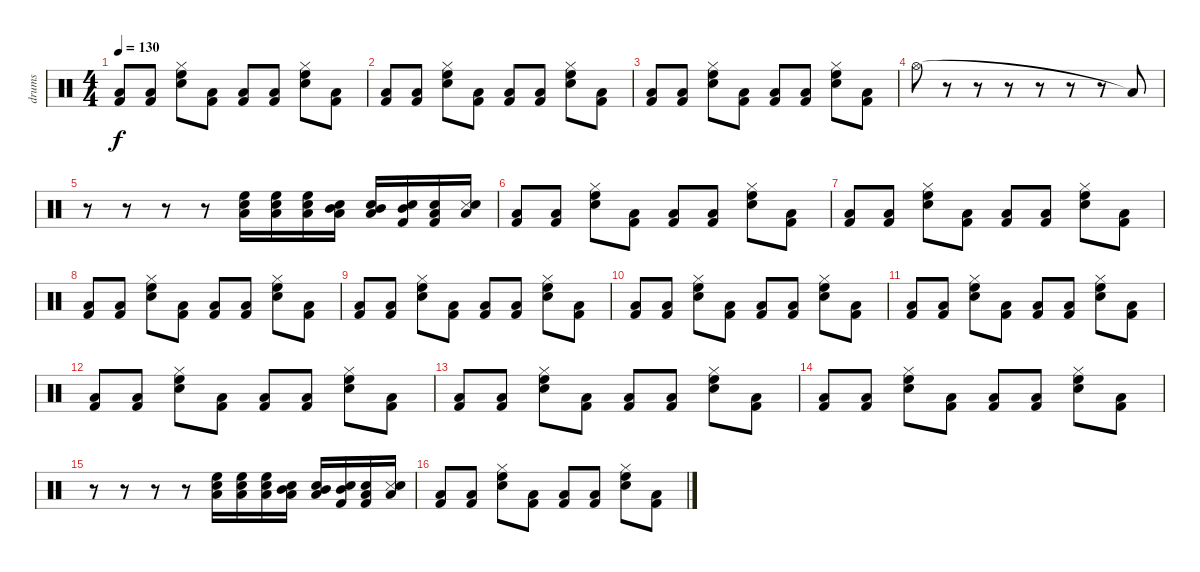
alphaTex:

\track ("drums" "drums") {instrument percussion}
\staff {score}
\articulation defaults
\ts (4 4)
\tempo 130
\clef neutral
\ks c
("Kick (hit) 2" "Low Tom (hit)").8{dy f} ("Kick (hit) 2" "Low Tom (hit)").8 ("Hi-Hat (closed)" "High Floor Tom (hit)" "Snare (hit) 2").8 ("Kick (hit) 2" "Low Tom (hit)").8 ("Kick (hit) 2" "Low Tom (hit)").8 ("Kick (hit) 2" "Low Tom (hit)").8 ("Hi-Hat (closed)" "High Floor Tom (hit)" "Snare (hit) 2").8 ("Kick (hit) 2" "Low Tom (hit)").8 |
("Kick (hit) 2" "Low Tom (hit)").8 ("Kick (hit) 2" "Low Tom (hit)").8 ("Hi-Hat (closed)" "High Floor Tom (hit)" "Snare (hit) 2").8 ("Kick (hit) 2" "Low Tom (hit)").8 ("Kick (hit) 2" "Low Tom (hit)").8 ("Kick (hit) 2" "Low Tom (hit)").8 ("Hi-Hat (closed)" "High Floor Tom (hit)" "Snare (hit) 2").8 ("Kick (hit) 2" "Low Tom (hit)").8 |
("Kick (hit) 2" "Low Tom (hit)").8 ("Kick (hit) 2" "Low Tom (hit)").8 ("Hi-Hat (closed)" "High Floor Tom (hit)" "Snare (hit) 2").8 ("Kick (hit) 2" "Low Tom (hit)").8 ("Kick (hit) 2" "Low Tom (hit)").8 ("Kick (hit) 2" "Low Tom (hit)").8 ("Hi-Hat (closed)" "High Floor Tom (hit)" "Snare (hit) 2").8 ("Kick (hit) 2" "Low Tom (hit)").8 |
"Hi-Hat (open)".8 r.8 r.8 r.8 r.8 r.8 r.8 "Low Tom (hit)"{t}.8 |
r.8 r.8 r.8 r.8 ("High Floor Tom (hit)" "Low Tom (hit)" "Snare (hit) 2").16 ("High Floor Tom (hit)" "Low Tom (hit)" "Snare (hit) 2").16 ("High Floor Tom (hit)" "Low Tom (hit)" "Snare (hit) 2").16 ("Mid Tom (hit)" "Low Tom (hit)" "Snare (hit) 2").16 ("Mid Tom (hit)" "Low Tom (hit)" "Snare (hit) 2").16 ("Mid Tom (hit)" "Kick (hit) 2" "Snare (hit) 2").16 ("Low Tom (hit)" "Kick (hit) 2" "Snare (hit) 2").16 ("Low Floor Tom (hit)" "Snare (side stick) 3" "Snare (hit) 2").16 |
("Kick (hit) 2" "Low Tom (hit)").8 ("Kick (hit) 2" "Low Tom (hit)").8 ("Hi-Hat (closed)" "High Floor Tom (hit)" "Snare (hit) 2").8 ("Kick (hit) 2" "Low Tom (hit)").8 ("Kick (hit) 2" "Low Tom (hit)").8 ("Kick (hit) 2" "Low Tom (hit)").8 ("Hi-Hat (closed)" "High Floor Tom (hit)" "Snare (hit) 2").8 ("Kick (hit) 2" "Low Tom (hit)").8 |
("Kick (hit) 2" "Low Tom (hit)").8 ("Kick (hit) 2" "Low Tom (hit)").8 ("Hi-Hat (closed)" "High Floor Tom (hit)" "Snare (hit) 2").8 ("Kick (hit) 2" "Low Tom (hit)").8 ("Kick (hit) 2" "Low Tom (hit)").8 ("Kick (hit) 2" "Low Tom (hit)").8 ("Hi-Hat (closed)" "High Floor Tom (hit)" "Snare (hit) 2").8 ("Kick (hit) 2" "Low Tom (hit)").8 |
("Kick (hit) 2" "Low Tom (hit)").8 ("Kick (hit) 2" "Low Tom (hit)").8 ("Hi-Hat (closed)" "High Floor Tom (hit)" "Snare (hit) 2").8 ("Kick (hit) 2" "Low Tom (hit)").8 ("Kick (hit) 2" "Low Tom (hit)").8 ("Kick (hit) 2" "Low Tom (hit)").8 ("Hi-Hat (closed)" "High Floor Tom (hit)" "Snare (hit) 2").8 ("Kick (hit) 2" "Low Tom (hit)").8 |
("Kick (hit) 2" "Low Tom (hit)").8 ("Kick (hit) 2" "Low Tom (hit)").8 ("Hi-Hat (closed)" "High Floor Tom (hit)" "Snare (hit) 2").8 ("Kick (hit) 2" "Low Tom (hit)").8 ("Kick (hit) 2" "Low Tom (hit)").8 ("Kick (hit) 2" "Low Tom (hit)").8 ("Hi-Hat (closed)" "High Floor Tom (hit)" "Snare (hit) 2").8 ("Kick (hit) 2" "Low Tom (hit)").8 |
("Kick (hit) 2" "Low Tom (hit)").8 ("Kick (hit) 2" "Low Tom (hit)").8 ("Hi-Hat (closed)" "High Floor Tom (hit)" "Snare (hit) 2").8 ("Kick (hit) 2" "Low Tom (hit)").8 ("Kick (hit) 2" "Low Tom (hit)").8 ("Kick (hit) 2" "Low Tom (hit)").8 ("Hi-Hat (closed)" "High Floor Tom (hit)" "Snare (hit) 2").8 ("Kick (hit) 2" "Low Tom (hit)").8 |
("Kick (hit) 2" "Low Tom (hit)").8 ("Kick (hit) 2" "Low Tom (hit)").8 ("Hi-Hat (closed)" "High Floor Tom (hit)" "Snare (hit) 2").8 ("Kick (hit) 2" "Low Tom (hit)").8 ("Kick (hit) 2" "Low Tom (hit)").8 ("Kick (hit) 2" "Low Tom (hit)").8 ("Hi-Hat (closed)" "High Floor Tom (hit)" "Snare (hit) 2").8 ("Kick (hit) 2" "Low Tom (hit)").8 |
("Kick (hit) 2" "Low Tom (hit)").8 ("Kick (hit) 2" "Low Tom (hit)").8 ("Hi-Hat (closed)" "High Floor Tom (hit)" "Snare (hit) 2").8 ("Kick (hit) 2" "Low Tom (hit)").8 ("Kick (hit) 2" "Low Tom (hit)").8 ("Kick (hit) 2" "Low Tom (hit)").8 ("Hi-Hat (closed)" "High Floor Tom (hit)" "Snare (hit) 2").8 ("Kick (hit) 2" "Low Tom (hit)").8 |
("Kick (hit) 2" "Low Tom (hit)").8 ("Kick (hit) 2" "Low Tom (hit)").8 ("Hi-Hat (closed)" "High Floor Tom (hit)" "Snare (hit) 2").8 ("Kick (hit) 2" "Low Tom (hit)").8 ("Kick (hit) 2" "Low Tom (hit)").8 ("Kick (hit) 2" "Low Tom (hit)").8 ("Hi-Hat (closed)" "High Floor Tom (hit)" "Snare (hit) 2").8 ("Kick (hit) 2" "Low Tom (hit)").8 |
("Kick (hit) 2" "Low Tom (hit)").8 ("Kick (hit) 2" "Low Tom (hit)").8 ("Hi-Hat (closed)" "High Floor Tom (hit)" "Snare (hit) 2").8 ("Kick (hit) 2" "Low Tom (hit)").8 ("Kick (hit) 2" "Low Tom (hit)").8 ("Kick (hit) 2" "Low Tom (hit)").8 ("Hi-Hat (closed)" "High Floor Tom (hit)" "Snare (hit) 2").8 ("Kick (hit) 2" "Low Tom (hit)").8 |
r.8 r.8 r.8 r.8 ("High Floor Tom (hit)" "Low Tom (hit)" "Snare (hit) 2").16 ("High Floor Tom (hit)" "Low Tom (hit)" "Snare (hit) 2").16 ("High Floor Tom (hit)" "Low Tom (hit)" "Snare (hit) 2").16 ("Mid Tom (hit)" "Low Tom (hit)" "Snare (hit) 2").16 ("Mid Tom (hit)" "Low Tom (hit)" "Snare (hit) 2").16 ("Mid Tom (hit)" "Kick (hit) 2" "Snare (hit) 2").16 ("Low Tom (hit)" "Kick (hit) 2" "Snare (hit) 2").16 ("Low Floor Tom (hit)" "Snare (side stick) 3" "Snare (hit) 2").16 |
("Kick (hit) 2" "Low Tom (hit)").8 ("Kick (hit) 2" "Low Tom (hit)").8 ("Hi-Hat (closed)" "High Floor Tom (hit)" "Snare (hit) 2").8 ("Kick (hit) 2" "Low Tom (hit)").8 ("Kick (hit) 2" "Low Tom (hit)").8 ("Kick (hit) 2" "Low Tom (hit)").8 ("Hi-Hat (closed)" "High Floor Tom (hit)" "Snare (hit) 2").8 ("Kick (hit) 2" "Low Tom (hit)").8
